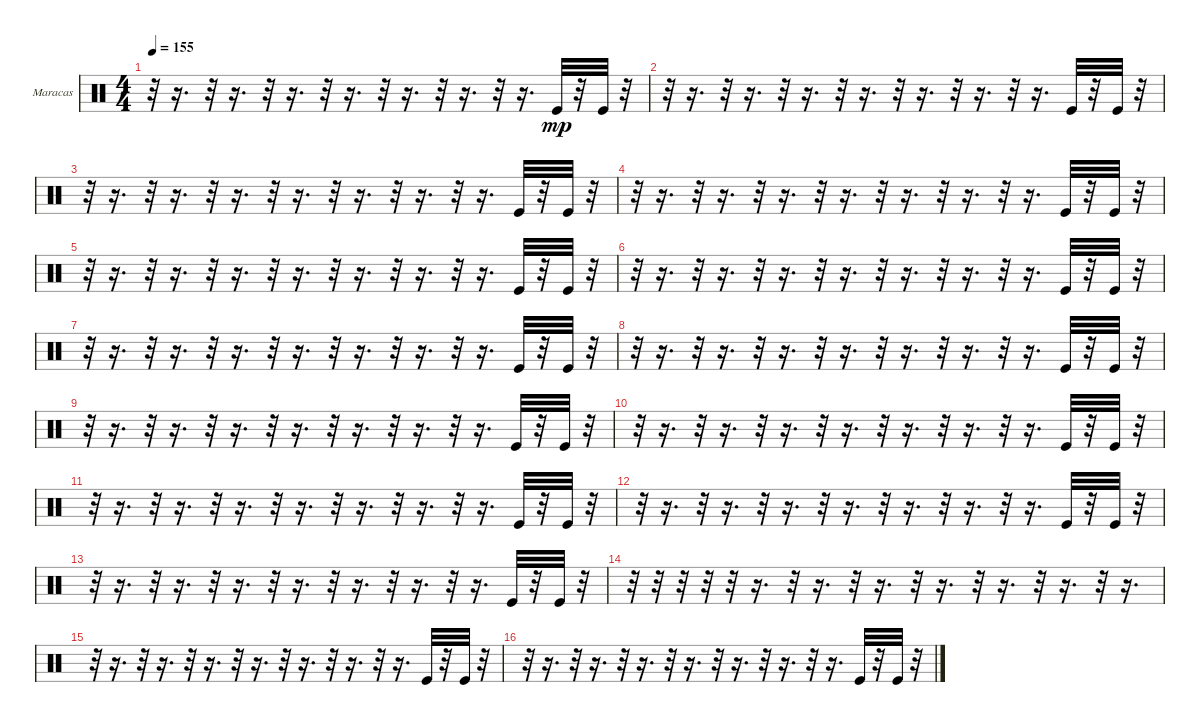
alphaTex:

\bracketExtendMode groupsimilarinstruments
\firstSystemTrackNameOrientation horizontal
\otherSystemsTrackNameOrientation horizontal
\track ("Е. Кулаков" "Maracas") {instrument percussion}
\staff {score}
\articulation defaults
\ts (4 4)
\tempo 155
\clef neutral
\ks c
r.32{dy mp} r.16{d} r.32 r.16{d} r.32 r.16{d} r.32 r.16{d} r.32 r.16{d} r.32 r.16{d} r.32 r.16{d} "Kick (hit)".32 r.32 "Kick (hit)".32 r.32 |
r.32 r.16{d} r.32 r.16{d} r.32 r.16{d} r.32 r.16{d} r.32 r.16{d} r.32 r.16{d} r.32 r.16{d} "Kick (hit)".32 r.32 "Kick (hit)".32 r.32 |
r.32 r.16{d} r.32 r.16{d} r.32 r.16{d} r.32 r.16{d} r.32 r.16{d} r.32 r.16{d} r.32 r.16{d} "Kick (hit)".32 r.32 "Kick (hit)".32 r.32 |
r.32 r.16{d} r.32 r.16{d} r.32 r.16{d} r.32 r.16{d} r.32 r.16{d} r.32 r.16{d} r.32 r.16{d} "Kick (hit)".32 r.32 "Kick (hit)".32 r.32 |
r.32 r.16{d} r.32 r.16{d} r.32 r.16{d} r.32 r.16{d} r.32 r.16{d} r.32 r.16{d} r.32 r.16{d} "Kick (hit)".32 r.32 "Kick (hit)".32 r.32 |
r.32 r.16{d} r.32 r.16{d} r.32 r.16{d} r.32 r.16{d} r.32 r.16{d} r.32 r.16{d} r.32 r.16{d} "Kick (hit)".32 r.32 "Kick (hit)".32 r.32 |
r.32 r.16{d} r.32 r.16{d} r.32 r.16{d} r.32 r.16{d} r.32 r.16{d} r.32 r.16{d} r.32 r.16{d} "Kick (hit)".32 r.32 "Kick (hit)".32 r.32 |
r.32 r.16{d} r.32 r.16{d} r.32 r.16{d} r.32 r.16{d} r.32 r.16{d} r.32 r.16{d} r.32 r.16{d} "Kick (hit)".32 r.32 "Kick (hit)".32 r.32 |
r.32 r.16{d} r.32 r.16{d} r.32 r.16{d} r.32 r.16{d} r.32 r.16{d} r.32 r.16{d} r.32 r.16{d} "Kick (hit)".32 r.32 "Kick (hit)".32 r.32 |
r.32 r.16{d} r.32 r.16{d} r.32 r.16{d} r.32 r.16{d} r.32 r.16{d} r.32 r.16{d} r.32 r.16{d} "Kick (hit)".32 r.32 "Kick (hit)".32 r.32 |
r.32 r.16{d} r.32 r.16{d} r.32 r.16{d} r.32 r.16{d} r.32 r.16{d} r.32 r.16{d} r.32 r.16{d} "Kick (hit)".32 r.32 "Kick (hit)".32 r.32 |
r.32 r.16{d} r.32 r.16{d} r.32 r.16{d} r.32 r.16{d} r.32 r.16{d} r.32 r.16{d} r.32 r.16{d} "Kick (hit)".32 r.32 "Kick (hit)".32 r.32 |
r.32 r.16{d} r.32 r.16{d} r.32 r.16{d} r.32 r.16{d} r.32 r.16{d} r.32 r.16{d} r.32 r.16{d} "Kick (hit)".32 r.32 "Kick (hit)".32 r.32 |
r.32 r.32 r.32 r.32 r.32 r.16{d} r.32 r.16{d} r.32 r.16{d} r.32 r.16{d} r.32 r.16{d} r.32 r.16{d} r.32 r.16{d} |
r.32 r.16{d} r.32 r.16{d} r.32 r.16{d} r.32 r.16{d} r.32 r.16{d} r.32 r.16{d} r.32 r.16{d} "Kick (hit)".32 r.32 "Kick (hit)".32 r.32 |
r.32 r.16{d} r.32 r.16{d} r.32 r.16{d} r.32 r.16{d} r.32 r.16{d} r.32 r.16{d} r.32 r.16{d} "Kick (hit)".32 r.32 "Kick (hit)".32 r.32
